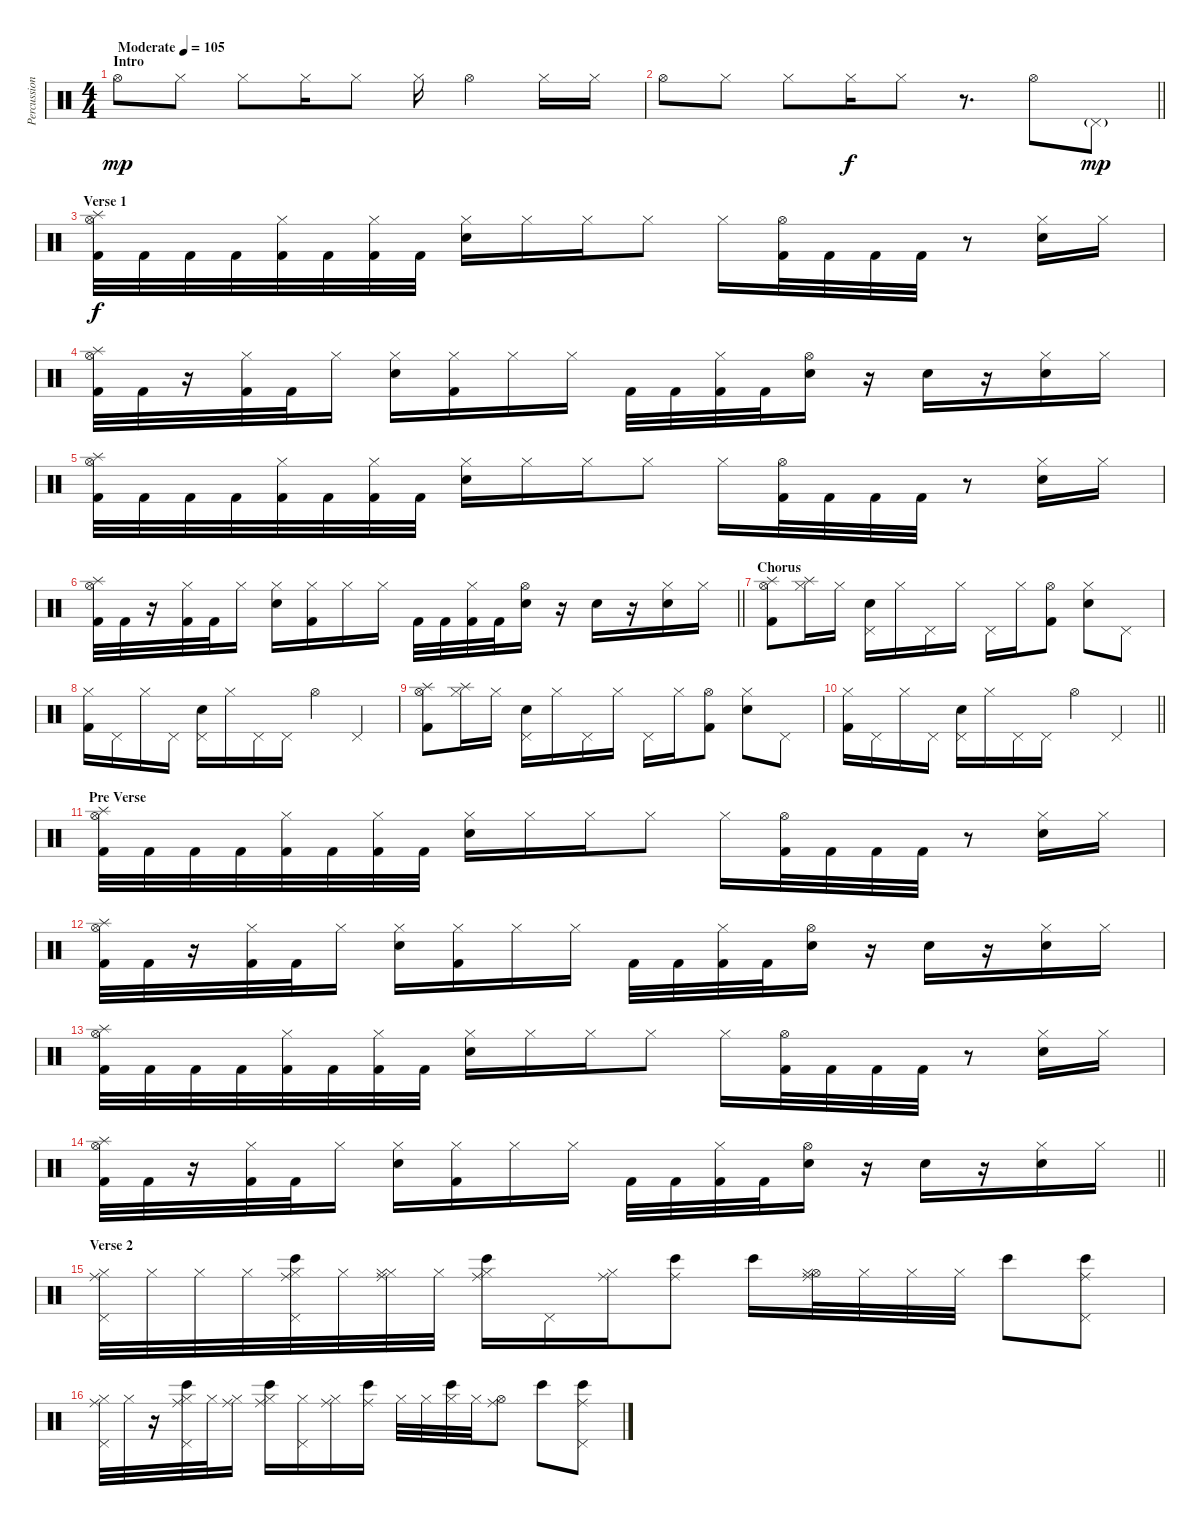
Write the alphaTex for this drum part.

\track ("Percussion" "Percussion") {instrument percussion}
\staff {score}
\articulation defaults
\ts (4 4)
\section ("" "Intro")
\tempo (105 "Moderate")
\clef neutral
\ks c "Hi-Hat (open)".8{dy mp} "Hi-Hat (closed)".8 "Hi-Hat (closed)".8 "Hi-Hat (closed)".16 "Hi-Hat (closed)".8 "Hi-Hat (closed)".16 "Hi-Hat (open)".4 "Hi-Hat (closed)".16 "Hi-Hat (closed)".16
|
\barLineRight lightlight "Hi-Hat (open)".8 "Hi-Hat (closed)".8 "Hi-Hat (closed)".8 "Hi-Hat (closed)".16{dy f} "Hi-Hat (closed)".8
r.8{d} "Hi-Hat (open)".8 "Pedal Hi-Hat (hit)"{g}.8{dy mp} |
\section ("" "Verse 1")
("Splash (hit)" "Hi-Hat (open)" "Kick (hit) 2").32{dy f} "Kick (hit) 2".32 "Kick (hit) 2".32 "Kick (hit) 2".32 ("Hi-Hat (closed)" "Kick (hit) 2").32 "Kick (hit) 2".32 ("Hi-Hat (closed)" "Kick (hit) 2").32 "Kick (hit) 2".32 ("Hi-Hat (closed)" "Electric Snare (hit)").16 "Hi-Hat (closed)".16 "Hi-Hat (closed)".16 "Hi-Hat (closed)".8 "Hi-Hat (closed)".16 ("Hi-Hat (open)" "Kick (hit) 2").32 "Kick (hit) 2".32 "Kick (hit) 2".32 "Kick (hit) 2".32 r.8 ("Hi-Hat (closed)" "Electric Snare (hit)").16 "Hi-Hat (closed)".16 |
("Splash (hit)" "Hi-Hat (open)" "Kick (hit) 2").32 "Kick (hit) 2".32 r.16 ("Hi-Hat (closed)" "Kick (hit) 2").32 "Kick (hit) 2".32 "Hi-Hat (closed)".16 ("Hi-Hat (closed)" "Electric Snare (hit)").16 ("Hi-Hat (closed)" "Kick (hit) 2").16 "Hi-Hat (closed)".16 "Hi-Hat (closed)".16 "Kick (hit) 2".32 "Kick (hit) 2".32 ("Hi-Hat (closed)" "Kick (hit) 2").32 "Kick (hit) 2".32 ("Hi-Hat (open)" "Electric Snare (hit)").16 r.16 "Electric Snare (hit)".16 r.16 ("Hi-Hat (closed)" "Electric Snare (hit)").16 "Hi-Hat (closed)".16 |
("Splash (hit)" "Hi-Hat (open)" "Kick (hit) 2").32 "Kick (hit) 2".32 "Kick (hit) 2".32 "Kick (hit) 2".32 ("Hi-Hat (closed)" "Kick (hit) 2").32 "Kick (hit) 2".32 ("Hi-Hat (closed)" "Kick (hit) 2").32 "Kick (hit) 2".32 ("Hi-Hat (closed)" "Electric Snare (hit)").16 "Hi-Hat (closed)".16 "Hi-Hat (closed)".16 "Hi-Hat (closed)".8 "Hi-Hat (closed)".16 ("Hi-Hat (open)" "Kick (hit) 2").32 "Kick (hit) 2".32 "Kick (hit) 2".32 "Kick (hit) 2".32 r.8 ("Hi-Hat (closed)" "Electric Snare (hit)").16 "Hi-Hat (closed)".16 |
\barLineRight lightlight
("Splash (hit)" "Hi-Hat (open)" "Kick (hit) 2").32 "Kick (hit) 2".32 r.16 ("Hi-Hat (closed)" "Kick (hit) 2").32 "Kick (hit) 2".32 "Hi-Hat (closed)".16 ("Hi-Hat (closed)" "Electric Snare (hit)").16 ("Hi-Hat (closed)" "Kick (hit) 2").16 "Hi-Hat (closed)".16 "Hi-Hat (closed)".16 "Kick (hit) 2".32 "Kick (hit) 2".32 ("Hi-Hat (closed)" "Kick (hit) 2").32 "Kick (hit) 2".32 ("Hi-Hat (open)" "Electric Snare (hit)").16 r.16 "Electric Snare (hit)".16 r.16 ("Hi-Hat (closed)" "Electric Snare (hit)").16 "Hi-Hat (closed)".16 |
\section ("" "Chorus")
("Splash (hit)" "Hi-Hat (open)" "Kick (hit) 2").8 ("Splash (hit)" "Hi-Hat (closed)").16 "Hi-Hat (closed)".16 ("Pedal Hi-Hat (hit)" "Electric Snare (hit)").16 "Hi-Hat (closed)".16 "Pedal Hi-Hat (hit)".16 "Hi-Hat (closed)".16 "Pedal Hi-Hat (hit)".16 "Hi-Hat (closed)".16 ("Hi-Hat (open)" "Kick (hit) 2").8 ("Hi-Hat (closed)" "Electric Snare (hit)").8 "Pedal Hi-Hat (hit)".8 |
("Hi-Hat (closed)" "Kick (hit) 2").16 "Pedal Hi-Hat (hit)".16 "Hi-Hat (closed)".16 "Pedal Hi-Hat (hit)".16 ("Pedal Hi-Hat (hit)" "Electric Snare (hit)").16 "Hi-Hat (closed)".16 "Pedal Hi-Hat (hit)".16 "Pedal Hi-Hat (hit)".16 "Hi-Hat (open)".4 "Pedal Hi-Hat (hit)".4 |
("Splash (hit)" "Hi-Hat (open)" "Kick (hit) 2").8 ("Splash (hit)" "Hi-Hat (closed)").16 "Hi-Hat (closed)".16 ("Pedal Hi-Hat (hit)" "Electric Snare (hit)").16 "Hi-Hat (closed)".16 "Pedal Hi-Hat (hit)".16 "Hi-Hat (closed)".16 "Pedal Hi-Hat (hit)".16 "Hi-Hat (closed)".16 ("Hi-Hat (open)" "Kick (hit) 2").8 ("Hi-Hat (closed)" "Electric Snare (hit)").8 "Pedal Hi-Hat (hit)".8 |
\barLineRight lightlight
("Hi-Hat (closed)" "Kick (hit) 2").16 "Pedal Hi-Hat (hit)".16 "Hi-Hat (closed)".16 "Pedal Hi-Hat (hit)".16 ("Pedal Hi-Hat (hit)" "Electric Snare (hit)").16 "Hi-Hat (closed)".16 "Pedal Hi-Hat (hit)".16 "Pedal Hi-Hat (hit)".16 "Hi-Hat (open)".4 "Pedal Hi-Hat (hit)".4 |
\section ("" "Pre Verse")
("Splash (hit)" "Hi-Hat (open)" "Kick (hit) 2").32 "Kick (hit) 2".32 "Kick (hit) 2".32 "Kick (hit) 2".32 ("Hi-Hat (closed)" "Kick (hit) 2").32 "Kick (hit) 2".32 ("Hi-Hat (closed)" "Kick (hit) 2").32 "Kick (hit) 2".32 ("Hi-Hat (closed)" "Electric Snare (hit)").16 "Hi-Hat (closed)".16 "Hi-Hat (closed)".16 "Hi-Hat (closed)".8 "Hi-Hat (closed)".16 ("Hi-Hat (open)" "Kick (hit) 2").32 "Kick (hit) 2".32 "Kick (hit) 2".32 "Kick (hit) 2".32 r.8 ("Hi-Hat (closed)" "Electric Snare (hit)").16 "Hi-Hat (closed)".16 |
("Splash (hit)" "Hi-Hat (open)" "Kick (hit) 2").32 "Kick (hit) 2".32 r.16 ("Hi-Hat (closed)" "Kick (hit) 2").32 "Kick (hit) 2".32 "Hi-Hat (closed)".16 ("Hi-Hat (closed)" "Electric Snare (hit)").16 ("Hi-Hat (closed)" "Kick (hit) 2").16 "Hi-Hat (closed)".16 "Hi-Hat (closed)".16 "Kick (hit) 2".32 "Kick (hit) 2".32 ("Hi-Hat (closed)" "Kick (hit) 2").32 "Kick (hit) 2".32 ("Hi-Hat (open)" "Electric Snare (hit)").16 r.16 "Electric Snare (hit)".16 r.16 ("Hi-Hat (closed)" "Electric Snare (hit)").16 "Hi-Hat (closed)".16 |
("Splash (hit)" "Hi-Hat (open)" "Kick (hit) 2").32 "Kick (hit) 2".32 "Kick (hit) 2".32 "Kick (hit) 2".32 ("Hi-Hat (closed)" "Kick (hit) 2").32 "Kick (hit) 2".32 ("Hi-Hat (closed)" "Kick (hit) 2").32 "Kick (hit) 2".32 ("Hi-Hat (closed)" "Electric Snare (hit)").16 "Hi-Hat (closed)".16 "Hi-Hat (closed)".16 "Hi-Hat (closed)".8 "Hi-Hat (closed)".16 ("Hi-Hat (open)" "Kick (hit) 2").32 "Kick (hit) 2".32 "Kick (hit) 2".32 "Kick (hit) 2".32 r.8 ("Hi-Hat (closed)" "Electric Snare (hit)").16 "Hi-Hat (closed)".16 |
\barLineRight lightlight
("Splash (hit)" "Hi-Hat (open)" "Kick (hit) 2").32 "Kick (hit) 2".32 r.16 ("Hi-Hat (closed)" "Kick (hit) 2").32 "Kick (hit) 2".32 "Hi-Hat (closed)".16 ("Hi-Hat (closed)" "Electric Snare (hit)").16 ("Hi-Hat (closed)" "Kick (hit) 2").16 "Hi-Hat (closed)".16 "Hi-Hat (closed)".16 "Kick (hit) 2".32 "Kick (hit) 2".32 ("Hi-Hat (closed)" "Kick (hit) 2").32 "Kick (hit) 2".32 ("Hi-Hat (open)" "Electric Snare (hit)").16 r.16 "Electric Snare (hit)".16 r.16 ("Hi-Hat (closed)" "Electric Snare (hit)").16 "Hi-Hat (closed)".16 |
\section ("" "Verse 2")
("Ride (middle)" "Pedal Hi-Hat (hit)" "Hi-Hat (closed)").32 "Hi-Hat (closed)".32 "Hi-Hat (closed)".32 "Hi-Hat (closed)".32 ("Ride (middle)" "Pedal Hi-Hat (hit)" "Bongo High (hit)" "Hi-Hat (closed)").32 "Hi-Hat (closed)".32 ("Ride (middle)" "Hi-Hat (closed)" "Hi-Hat (closed)").32 "Hi-Hat (closed)".32 ("Ride (middle)" "Hi-Hat (closed)" "Bongo High (hit)").16 "Pedal Hi-Hat (hit)".16 ("Ride (middle)" "Hi-Hat (closed)").16 ("Ride (middle)" "Bongo High (hit)").8 "Bongo High (hit)".16 ("Ride (middle)" "Hi-Hat (open)" "Hi-Hat (closed)").32 "Hi-Hat (closed)".32 "Hi-Hat (closed)".32 "Hi-Hat (closed)".32 "Bongo High (hit)".8 ("Ride (middle)" "Pedal Hi-Hat (hit)" "Bongo High (hit)").8 |
("Ride (middle)" "Pedal Hi-Hat (hit)" "Hi-Hat (closed)").32 "Hi-Hat (closed)".32 r.16 ("Ride (middle)" "Pedal Hi-Hat (hit)" "Bongo High (hit)" "Hi-Hat (closed)").32 "Hi-Hat (closed)".32 ("Ride (middle)" "Hi-Hat (closed)").16 ("Ride (middle)" "Hi-Hat (closed)" "Bongo High (hit)").16 ("Pedal Hi-Hat (hit)" "Hi-Hat (closed)").16 ("Ride (middle)" "Hi-Hat (closed)").16 ("Ride (middle)" "Bongo High (hit)").16 "Hi-Hat (closed)".32 "Hi-Hat (closed)".32 ("Bongo High (hit)" "Hi-Hat (closed)").32 "Hi-Hat (closed)".32 ("Ride (middle)" "Hi-Hat (open)").8 "Bongo High (hit)".8 ("Ride (middle)" "Pedal Hi-Hat (hit)" "Bongo High (hit)").8
